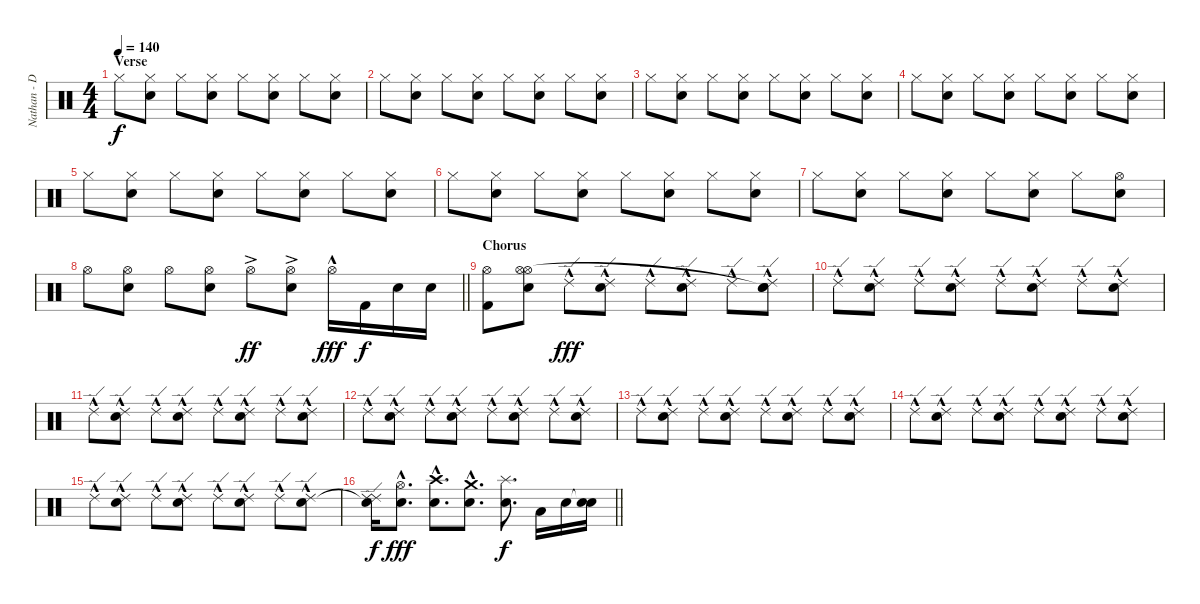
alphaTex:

\track ("Nathan - Drums MIDI" "Nathan - D") {instrument percussion}
\staff {score}
\articulation defaults
\ts (4 4)
\section ("" "Verse ")
\tempo 140
\clef neutral
\ks c "Hi-Hat (closed)".8{dy f}
("Hi-Hat (closed)" "Snare (hit) 2").8 "Hi-Hat (closed)".8 ("Hi-Hat (closed)" "Snare (hit) 2").8 "Hi-Hat (closed)".8 ("Hi-Hat (closed)" "Snare (hit) 2").8 "Hi-Hat (closed)".8 ("Hi-Hat (closed)" "Snare (hit) 2").8 |
"Hi-Hat (closed)".8 ("Hi-Hat (closed)" "Snare (hit) 2").8 "Hi-Hat (closed)".8 ("Hi-Hat (closed)" "Snare (hit) 2").8 "Hi-Hat (closed)".8 ("Hi-Hat (closed)" "Snare (hit) 2").8 "Hi-Hat (closed)".8 ("Hi-Hat (closed)" "Snare (hit) 2").8 |
"Hi-Hat (closed)".8 ("Hi-Hat (closed)" "Snare (hit) 2").8 "Hi-Hat (closed)".8 ("Hi-Hat (closed)" "Snare (hit) 2").8 "Hi-Hat (closed)".8 ("Hi-Hat (closed)" "Snare (hit) 2").8 "Hi-Hat (closed)".8 ("Hi-Hat (closed)" "Snare (hit) 2").8 |
"Hi-Hat (closed)".8 ("Hi-Hat (closed)" "Snare (hit) 2").8 "Hi-Hat (closed)".8 ("Hi-Hat (closed)" "Snare (hit) 2").8 "Hi-Hat (closed)".8 ("Hi-Hat (closed)" "Snare (hit) 2").8 "Hi-Hat (closed)".8 ("Hi-Hat (closed)" "Snare (hit) 2").8 |
"Hi-Hat (closed)".8 ("Hi-Hat (closed)" "Snare (hit) 2").8 "Hi-Hat (closed)".8 ("Hi-Hat (closed)" "Snare (hit) 2").8 "Hi-Hat (closed)".8 ("Hi-Hat (closed)" "Snare (hit) 2").8 "Hi-Hat (closed)".8 ("Hi-Hat (closed)" "Snare (hit) 2").8 |
"Hi-Hat (closed)".8 ("Hi-Hat (closed)" "Snare (hit) 2").8 "Hi-Hat (closed)".8 ("Hi-Hat (closed)" "Snare (hit) 2").8 "Hi-Hat (closed)".8 ("Hi-Hat (closed)" "Snare (hit) 2").8 "Hi-Hat (closed)".8 ("Hi-Hat (closed)" "Snare (hit) 2").8 |
"Hi-Hat (closed)".8 ("Hi-Hat (closed)" "Snare (hit) 2").8 "Hi-Hat (closed)".8 ("Hi-Hat (closed)" "Snare (hit) 2").8 "Hi-Hat (closed)".8 ("Hi-Hat (closed)" "Snare (hit) 2").8 "Hi-Hat (closed)".8 ("Hi-Hat (open)" "Snare (hit) 2").8 |
\barLineRight lightlight "Hi-Hat (open)".8
("Hi-Hat (open)" "Snare (hit) 2").8 "Hi-Hat (open)".8 ("Hi-Hat (open)" "Snare (hit) 2").8 "Hi-Hat (open)"{ac}.8{dy ff} ("Hi-Hat (open)"{ac} "Snare (hit) 2").8 "Hi-Hat (open)"{hac}.16{dy fff} "Kick (hit) 2".16{dy f} "Snare (hit) 2".16 "Snare (hit) 2".16 |
\section ("" "Chorus")
("Hi-Hat (open)" "Kick (hit) 2").8 ("Hi-Hat (open)" "Snare (hit) 2" "Hi-Hat (open)").8 "Ride (edge) 2"{hac}.8{dy fff} ("Ride (edge) 2"{hac} "Snare (hit) 2").8 "Ride (edge) 2"{hac}.8 ("Ride (edge) 2"{hac} "Snare (hit) 2").8 "Ride (edge) 2"{hac}.8 ("Ride (edge) 2"{hac} "Snare (hit) 2" "Snare (hit)"{t}).8 |
"Ride (edge) 2"{hac}.8 ("Ride (edge) 2"{hac} "Snare (hit) 2").8 "Ride (edge) 2"{hac}.8 ("Ride (edge) 2"{hac} "Snare (hit) 2").8 "Ride (edge) 2"{hac}.8 ("Ride (edge) 2"{hac} "Snare (hit) 2").8 "Ride (edge) 2"{hac}.8 ("Ride (edge) 2"{hac} "Snare (hit) 2").8 |
"Ride (edge) 2"{hac}.8 ("Ride (edge) 2"{hac} "Snare (hit) 2").8 "Ride (edge) 2"{hac}.8 ("Ride (edge) 2"{hac} "Snare (hit) 2").8 "Ride (edge) 2"{hac}.8 ("Ride (edge) 2"{hac} "Snare (hit) 2").8 "Ride (edge) 2"{hac}.8 ("Ride (edge) 2"{hac} "Snare (hit) 2").8 |
"Ride (edge) 2"{hac}.8 ("Ride (edge) 2"{hac} "Snare (hit) 2").8 "Ride (edge) 2"{hac}.8 ("Ride (edge) 2"{hac} "Snare (hit) 2").8 "Ride (edge) 2"{hac}.8 ("Ride (edge) 2"{hac} "Snare (hit) 2").8 "Ride (edge) 2"{hac}.8 ("Ride (edge) 2"{hac} "Snare (hit) 2").8 |
"Ride (edge) 2"{hac}.8 ("Ride (edge) 2"{hac} "Snare (hit) 2").8 "Ride (edge) 2"{hac}.8 ("Ride (edge) 2"{hac} "Snare (hit) 2").8 "Ride (edge) 2"{hac}.8 ("Ride (edge) 2"{hac} "Snare (hit) 2").8 "Ride (edge) 2"{hac}.8 ("Ride (edge) 2"{hac} "Snare (hit) 2").8 |
"Ride (edge) 2"{hac}.8 ("Ride (edge) 2"{hac} "Snare (hit) 2").8 "Ride (edge) 2"{hac}.8 ("Ride (edge) 2"{hac} "Snare (hit) 2").8 "Ride (edge) 2"{hac}.8 ("Ride (edge) 2"{hac} "Snare (hit) 2").8 "Ride (edge) 2"{hac}.8 ("Ride (edge) 2"{hac} "Snare (hit) 2").8 |
"Ride (edge) 2"{hac}.8 ("Ride (edge) 2"{hac} "Snare (hit) 2").8 "Ride (edge) 2"{hac}.8 ("Ride (edge) 2"{hac} "Snare (hit) 2").8 "Ride (edge) 2"{hac}.8 ("Ride (edge) 2"{hac} "Snare (hit) 2").8 "Ride (edge) 2"{hac}.8 ("Ride (edge) 2"{hac} "Snare (hit) 2").8 |
\barLineRight lightlight
("Ride (edge) 2" "Snare (hit) 2"{t} "Ride (edge) 2").16{dy f} ("Hi-Hat (open)" "Snare (hit) 2"{hac}).8{d dy fff} ("Crash high (hit)" "Snare (hit) 2"{hac}).8{d} ("Crash medium (hit)" "Snare (hit) 2"{hac}).8{d} ("Splash (hit)" "Snare (hit) 2").8{d dy f} "Low Tom (hit)".16 "Snare (hit) 2".16 ("Snare (hit)"{t} "Snare (hit) 2").16
